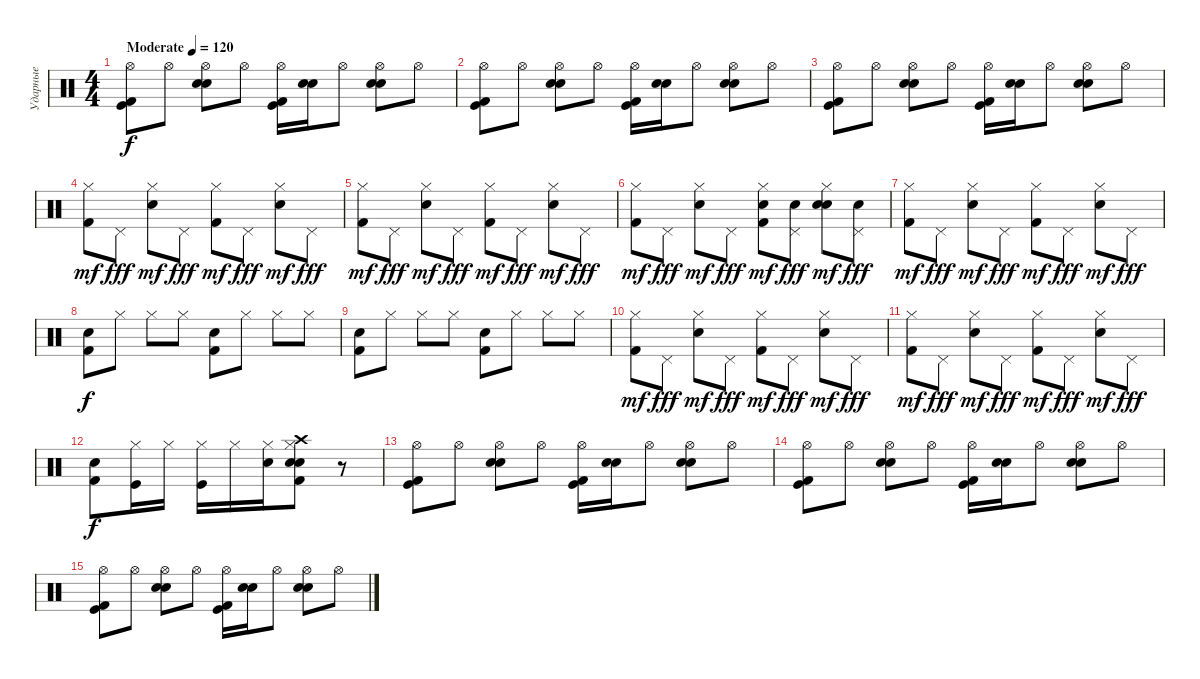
\track ("Ударные" "Ударные") {instrument percussion}
\staff {score}
\articulation defaults
\ts (4 4)
\tempo (120 "Moderate")
\clef neutral
\ks c
("Hi-Hat (open)" "Kick (hit) 2" "Kick (hit)").8{dy f} "Hi-Hat (open)".8 ("Hi-Hat (open)" "Electric Snare (hit)" "Snare (hit) 2").8 "Hi-Hat (open)".8 ("Hi-Hat (open)" "Kick (hit)" "Kick (hit) 2").16 ("Electric Snare (hit)" "Snare (hit) 2").16 "Hi-Hat (open)".8 ("Hi-Hat (open)" "Electric Snare (hit)" "Snare (hit) 2").8 "Hi-Hat (open)".8 |
("Hi-Hat (open)" "Kick (hit) 2" "Kick (hit)").8 "Hi-Hat (open)".8 ("Hi-Hat (open)" "Electric Snare (hit)" "Snare (hit) 2").8 "Hi-Hat (open)".8 ("Hi-Hat (open)" "Kick (hit)" "Kick (hit) 2").16 ("Electric Snare (hit)" "Snare (hit) 2").16 "Hi-Hat (open)".8 ("Hi-Hat (open)" "Electric Snare (hit)" "Snare (hit) 2").8 "Hi-Hat (open)".8 |
("Hi-Hat (open)" "Kick (hit) 2" "Kick (hit)").8 "Hi-Hat (open)".8 ("Hi-Hat (open)" "Electric Snare (hit)" "Snare (hit) 2").8 "Hi-Hat (open)".8 ("Hi-Hat (open)" "Kick (hit)" "Kick (hit) 2").16 ("Electric Snare (hit)" "Snare (hit) 2").16 "Hi-Hat (open)".8 ("Hi-Hat (open)" "Electric Snare (hit)" "Snare (hit) 2").8 "Hi-Hat (open)".8 |
("Kick (hit) 2" "Hi-Hat (closed)").8{dy mf} "Pedal Hi-Hat (hit)".8{dy fff} ("Hi-Hat (closed)" "Electric Snare (hit)").8{dy mf} "Pedal Hi-Hat (hit)".8{dy fff} ("Kick (hit) 2" "Hi-Hat (closed)").8{dy mf} "Pedal Hi-Hat (hit)".8{dy fff} ("Hi-Hat (closed)" "Electric Snare (hit)").8{dy mf} "Pedal Hi-Hat (hit)".8{dy fff} |
("Kick (hit) 2" "Hi-Hat (closed)").8{dy mf} "Pedal Hi-Hat (hit)".8{dy fff} ("Hi-Hat (closed)" "Electric Snare (hit)").8{dy mf} "Pedal Hi-Hat (hit)".8{dy fff} ("Kick (hit) 2" "Hi-Hat (closed)").8{dy mf} "Pedal Hi-Hat (hit)".8{dy fff} ("Hi-Hat (closed)" "Electric Snare (hit)").8{dy mf} "Pedal Hi-Hat (hit)".8{dy fff} |
("Kick (hit) 2" "Hi-Hat (closed)").8{dy mf} "Pedal Hi-Hat (hit)".8{dy fff} ("Hi-Hat (closed)" "Electric Snare (hit)").8{dy mf} "Pedal Hi-Hat (hit)".8{dy fff} ("Kick (hit) 2" "Snare (hit) 2" "Hi-Hat (closed)").8{dy mf} ("Snare (hit) 2" "Pedal Hi-Hat (hit)").8{dy fff} ("Snare (hit) 2" "Hi-Hat (closed)" "Electric Snare (hit)").8{dy mf} ("Snare (hit) 2" "Pedal Hi-Hat (hit)").8{dy fff} |
("Kick (hit) 2" "Hi-Hat (closed)").8{dy mf} "Pedal Hi-Hat (hit)".8{dy fff} ("Hi-Hat (closed)" "Electric Snare (hit)").8{dy mf} "Pedal Hi-Hat (hit)".8{dy fff} ("Kick (hit) 2" "Hi-Hat (closed)").8{dy mf} "Pedal Hi-Hat (hit)".8{dy fff} ("Hi-Hat (closed)" "Electric Snare (hit)").8{dy mf} "Pedal Hi-Hat (hit)".8{dy fff} |
("Snare (hit) 2" "Kick (hit) 2").8{dy f} "Hi-Hat (closed)".8 "Hi-Hat (closed)".8 "Hi-Hat (closed)".8 ("Snare (hit) 2" "Kick (hit) 2").8 "Hi-Hat (closed)".8 "Hi-Hat (closed)".8 "Hi-Hat (closed)".8 |
("Snare (hit) 2" "Kick (hit) 2").8 "Hi-Hat (closed)".8 "Hi-Hat (closed)".8 "Hi-Hat (closed)".8 ("Snare (hit) 2" "Kick (hit) 2").8 "Hi-Hat (closed)".8 "Hi-Hat (closed)".8 "Hi-Hat (closed)".8 |
("Kick (hit) 2" "Hi-Hat (closed)").8{dy mf} "Pedal Hi-Hat (hit)".8{dy fff} ("Hi-Hat (closed)" "Electric Snare (hit)").8{dy mf} "Pedal Hi-Hat (hit)".8{dy fff} ("Kick (hit) 2" "Hi-Hat (closed)").8{dy mf} "Pedal Hi-Hat (hit)".8{dy fff} ("Hi-Hat (closed)" "Electric Snare (hit)").8{dy mf} "Pedal Hi-Hat (hit)".8{dy fff} |
("Kick (hit) 2" "Hi-Hat (closed)").8{dy mf} "Pedal Hi-Hat (hit)".8{dy fff} ("Hi-Hat (closed)" "Electric Snare (hit)").8{dy mf} "Pedal Hi-Hat (hit)".8{dy fff} ("Kick (hit) 2" "Hi-Hat (closed)").8{dy mf} "Pedal Hi-Hat (hit)".8{dy fff} ("Hi-Hat (closed)" "Electric Snare (hit)").8{dy mf} "Pedal Hi-Hat (hit)".8{dy fff} |
("Snare (hit) 2" "Kick (hit) 2").8{dy f} ("Hi-Hat (closed)" "Kick (hit)").16 "Hi-Hat (closed)".16 ("Hi-Hat (closed)" "Kick (hit)").16 "Hi-Hat (closed)".16 ("Hi-Hat (closed)" "Snare (hit) 2").16 ("Electric Snare (hit)" "Snare (hit) 2" "Kick (hit) 2" "Hi-Hat (closed)" "Crash high (hit)").8 r.8 |
("Hi-Hat (open)" "Kick (hit) 2" "Kick (hit)").8 "Hi-Hat (open)".8 ("Hi-Hat (open)" "Electric Snare (hit)" "Snare (hit) 2").8 "Hi-Hat (open)".8 ("Hi-Hat (open)" "Kick (hit)" "Kick (hit) 2").16 ("Electric Snare (hit)" "Snare (hit) 2").16 "Hi-Hat (open)".8 ("Hi-Hat (open)" "Electric Snare (hit)" "Snare (hit) 2").8 "Hi-Hat (open)".8 |
("Hi-Hat (open)" "Kick (hit) 2" "Kick (hit)").8 "Hi-Hat (open)".8 ("Hi-Hat (open)" "Electric Snare (hit)" "Snare (hit) 2").8 "Hi-Hat (open)".8 ("Hi-Hat (open)" "Kick (hit)" "Kick (hit) 2").16 ("Electric Snare (hit)" "Snare (hit) 2").16 "Hi-Hat (open)".8 ("Hi-Hat (open)" "Electric Snare (hit)" "Snare (hit) 2").8 "Hi-Hat (open)".8 |
("Hi-Hat (open)" "Kick (hit) 2" "Kick (hit)").8 "Hi-Hat (open)".8 ("Hi-Hat (open)" "Electric Snare (hit)" "Snare (hit) 2").8 "Hi-Hat (open)".8 ("Hi-Hat (open)" "Kick (hit)" "Kick (hit) 2").16 ("Electric Snare (hit)" "Snare (hit) 2").16 "Hi-Hat (open)".8 ("Hi-Hat (open)" "Electric Snare (hit)" "Snare (hit) 2").8 "Hi-Hat (open)".8
